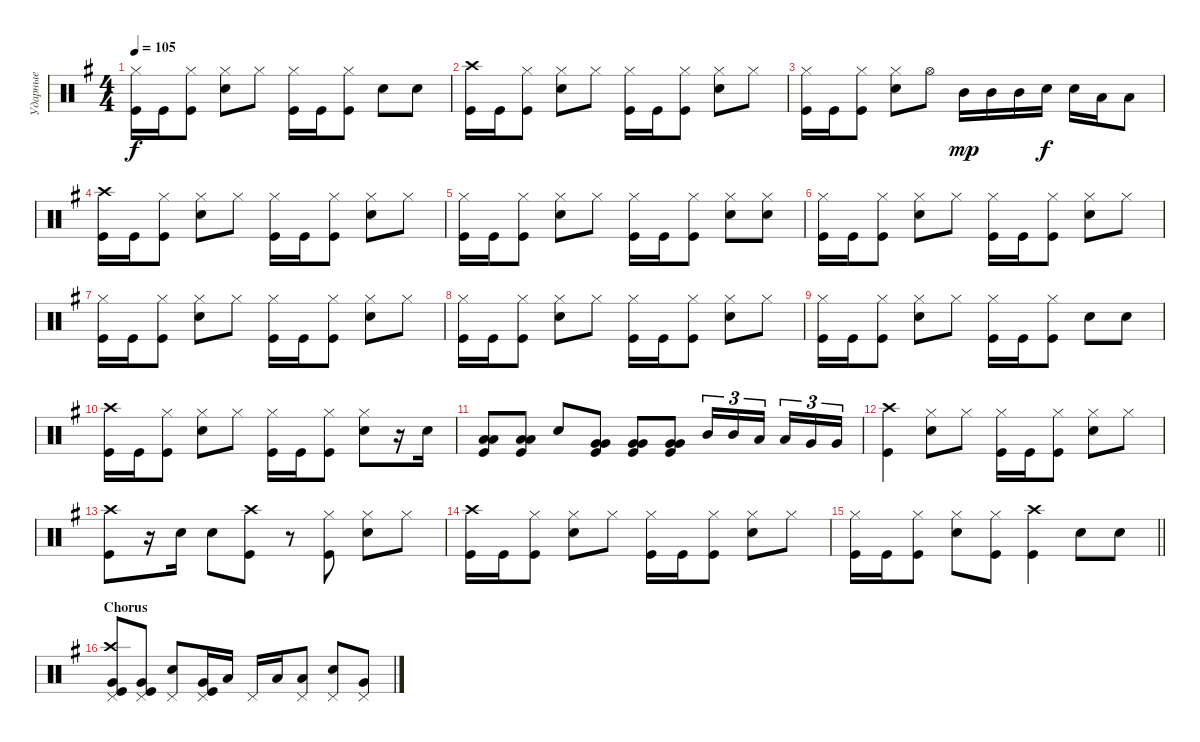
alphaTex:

\track ("Ударные" "Ударные") {instrument percussion}
\staff {score}
\articulation defaults
\ts (4 4)
\tempo 105
\clef neutral
\ks eminor
("Kick (hit)" "Hi-Hat (closed)").16{dy f} "Kick (hit)".16 ("Kick (hit)" "Hi-Hat (closed)").8 ("Snare (hit) 2" "Hi-Hat (closed)").8 "Hi-Hat (closed)".8 ("Kick (hit)" "Hi-Hat (closed)").16 "Kick (hit)".16 ("Kick (hit)" "Hi-Hat (closed)").8 "Snare (hit) 2".8 "Snare (hit) 2".8 |
("Kick (hit)" "Crash high (hit)").16 "Kick (hit)".16 ("Kick (hit)" "Hi-Hat (closed)").8 ("Snare (hit) 2" "Hi-Hat (closed)").8 "Hi-Hat (closed)".8 ("Kick (hit)" "Hi-Hat (closed)").16 "Kick (hit)".16 ("Kick (hit)" "Hi-Hat (closed)").8 ("Snare (hit) 2" "Hi-Hat (closed)").8 "Hi-Hat (closed)".8 |
("Kick (hit)" "Hi-Hat (closed)").16 "Kick (hit)".16 ("Kick (hit)" "Hi-Hat (closed)").8 ("Snare (hit) 2" "Hi-Hat (closed)").8 "Hi-Hat (open)".8 "Mid Tom (hit)".16{dy mp} "Mid Tom (hit)".16 "Mid Tom (hit)".16 "Snare (hit) 2".16{dy f} "Snare (hit) 2".16 "Low Tom (hit)".16 "Low Tom (hit)".8 |
("Kick (hit)" "Crash high (hit)").16 "Kick (hit)".16 ("Kick (hit)" "Hi-Hat (closed)").8 ("Snare (hit) 2" "Hi-Hat (closed)").8 "Hi-Hat (closed)".8 ("Kick (hit)" "Hi-Hat (closed)").16 "Kick (hit)".16 ("Kick (hit)" "Hi-Hat (closed)").8 ("Snare (hit) 2" "Hi-Hat (closed)").8 "Hi-Hat (closed)".8 |
("Kick (hit)" "Hi-Hat (closed)").16 "Kick (hit)".16 ("Kick (hit)" "Hi-Hat (closed)").8 ("Snare (hit) 2" "Hi-Hat (closed)").8 "Hi-Hat (closed)".8 ("Kick (hit)" "Hi-Hat (closed)").16 "Kick (hit)".16 ("Kick (hit)" "Hi-Hat (closed)").8 ("Snare (hit) 2" "Hi-Hat (closed)").8 ("Hi-Hat (closed)" "Snare (hit) 2").8 |
("Kick (hit)" "Hi-Hat (closed)").16 "Kick (hit)".16 ("Kick (hit)" "Hi-Hat (closed)").8 ("Snare (hit) 2" "Hi-Hat (closed)").8 "Hi-Hat (closed)".8 ("Kick (hit)" "Hi-Hat (closed)").16 "Kick (hit)".16 ("Kick (hit)" "Hi-Hat (closed)").8 ("Snare (hit) 2" "Hi-Hat (closed)").8 "Hi-Hat (closed)".8 |
("Kick (hit)" "Hi-Hat (closed)").16 "Kick (hit)".16 ("Kick (hit)" "Hi-Hat (closed)").8 ("Snare (hit) 2" "Hi-Hat (closed)").8 "Hi-Hat (closed)".8 ("Kick (hit)" "Hi-Hat (closed)").16 "Kick (hit)".16 ("Kick (hit)" "Hi-Hat (closed)").8 ("Snare (hit) 2" "Hi-Hat (closed)").8 "Hi-Hat (closed)".8 |
("Kick (hit)" "Hi-Hat (closed)").16 "Kick (hit)".16 ("Kick (hit)" "Hi-Hat (closed)").8 ("Snare (hit) 2" "Hi-Hat (closed)").8 "Hi-Hat (closed)".8 ("Kick (hit)" "Hi-Hat (closed)").16 "Kick (hit)".16 ("Kick (hit)" "Hi-Hat (closed)").8 ("Snare (hit) 2" "Hi-Hat (closed)").8 "Hi-Hat (closed)".8 |
("Kick (hit)" "Hi-Hat (closed)").16 "Kick (hit)".16 ("Kick (hit)" "Hi-Hat (closed)").8 ("Snare (hit) 2" "Hi-Hat (closed)").8 "Hi-Hat (closed)".8 ("Kick (hit)" "Hi-Hat (closed)").16 "Kick (hit)".16 ("Kick (hit)" "Hi-Hat (closed)").8 "Snare (hit) 2".8 "Snare (hit) 2".8 |
("Kick (hit)" "Crash high (hit)").16 "Kick (hit)".16 ("Kick (hit)" "Hi-Hat (closed)").8 ("Snare (hit) 2" "Hi-Hat (closed)").8 "Hi-Hat (closed)".8 ("Kick (hit)" "Hi-Hat (closed)").16 "Kick (hit)".16 ("Kick (hit)" "Hi-Hat (closed)").8 ("Snare (hit) 2" "Hi-Hat (closed)").8 r.16 "Snare (hit) 2".16 |
("Kick (hit)" "Low Tom (hit)" "Low Tom (hit)").8{bd 60} ("Low Tom (hit)" "Low Tom (hit)" "Kick (hit)").8{bd 60} "Snare (hit) 2".8 ("Kick (hit)" "Very Low Tom (hit)" "Very Low Tom (hit)").8{bd 60} ("Kick (hit)" "Very Low Tom (hit)" "Very Low Tom (hit)").8{bd 60} ("Kick (hit)" "Very Low Tom (hit)" "Very Low Tom (hit)").8{bd 60} "Mid Tom (hit)".16{tu (3 2)} "Mid Tom (hit)".16{tu (3 2)} "Low Tom (hit)".16{tu (3 2) beam splitsecondary} "Low Tom (hit)".16{tu (3 2)} "Very Low Tom (hit)".16{tu (3 2)} "Very Low Tom (hit)".16{tu (3 2)} |
("Kick (hit)" "Crash high (hit)").4 ("Snare (hit) 2" "Hi-Hat (closed)").8 "Hi-Hat (closed)".8 ("Kick (hit)" "Hi-Hat (closed)").16 "Kick (hit)".16 ("Kick (hit)" "Hi-Hat (closed)").8 ("Snare (hit) 2" "Hi-Hat (closed)").8 "Hi-Hat (closed)".8 |
("Kick (hit)" "Crash high (hit)").8 r.16 "Snare (hit) 2".16 "Snare (hit) 2".8 ("Kick (hit)" "Crash high (hit)").8 r.8 ("Kick (hit)" "Hi-Hat (closed)").8 ("Snare (hit) 2" "Hi-Hat (closed)").8 "Hi-Hat (closed)".8 |
("Kick (hit)" "Crash high (hit)").16 "Kick (hit)".16 ("Kick (hit)" "Hi-Hat (closed)").8 ("Snare (hit) 2" "Hi-Hat (closed)").8 "Hi-Hat (closed)".8 ("Kick (hit)" "Hi-Hat (closed)").16 "Kick (hit)".16 ("Kick (hit)" "Hi-Hat (closed)").8 ("Snare (hit) 2" "Hi-Hat (closed)").8 "Hi-Hat (closed)".8 |
\barLineRight lightlight
("Kick (hit)" "Hi-Hat (closed)").16 "Kick (hit)".16 ("Kick (hit)" "Hi-Hat (closed)").8 ("Snare (hit) 2" "Hi-Hat (closed)").8 ("Hi-Hat (closed)" "Kick (hit)").8 ("Kick (hit)" "Crash high (hit)").4 "Snare (hit) 2".8 "Snare (hit) 2".8 |
\section ("" "Chorus")
("Kick (hit)" "Very Low Tom (hit)" "Pedal Hi-Hat (hit)" "Crash high (hit)").8 ("Kick (hit)" "Very Low Tom (hit)" "Pedal Hi-Hat (hit)").8 ("Snare (hit) 2" "Pedal Hi-Hat (hit)").8 ("Kick (hit)" "Very Low Tom (hit)" "Pedal Hi-Hat (hit)").16 "Low Tom (hit)".16 "Pedal Hi-Hat (hit)".16 "Low Tom (hit)".16 ("Low Tom (hit)" "Pedal Hi-Hat (hit)").8 ("Snare (hit) 2" "Pedal Hi-Hat (hit)").8 ("Very Low Tom (hit)" "Pedal Hi-Hat (hit)").8
